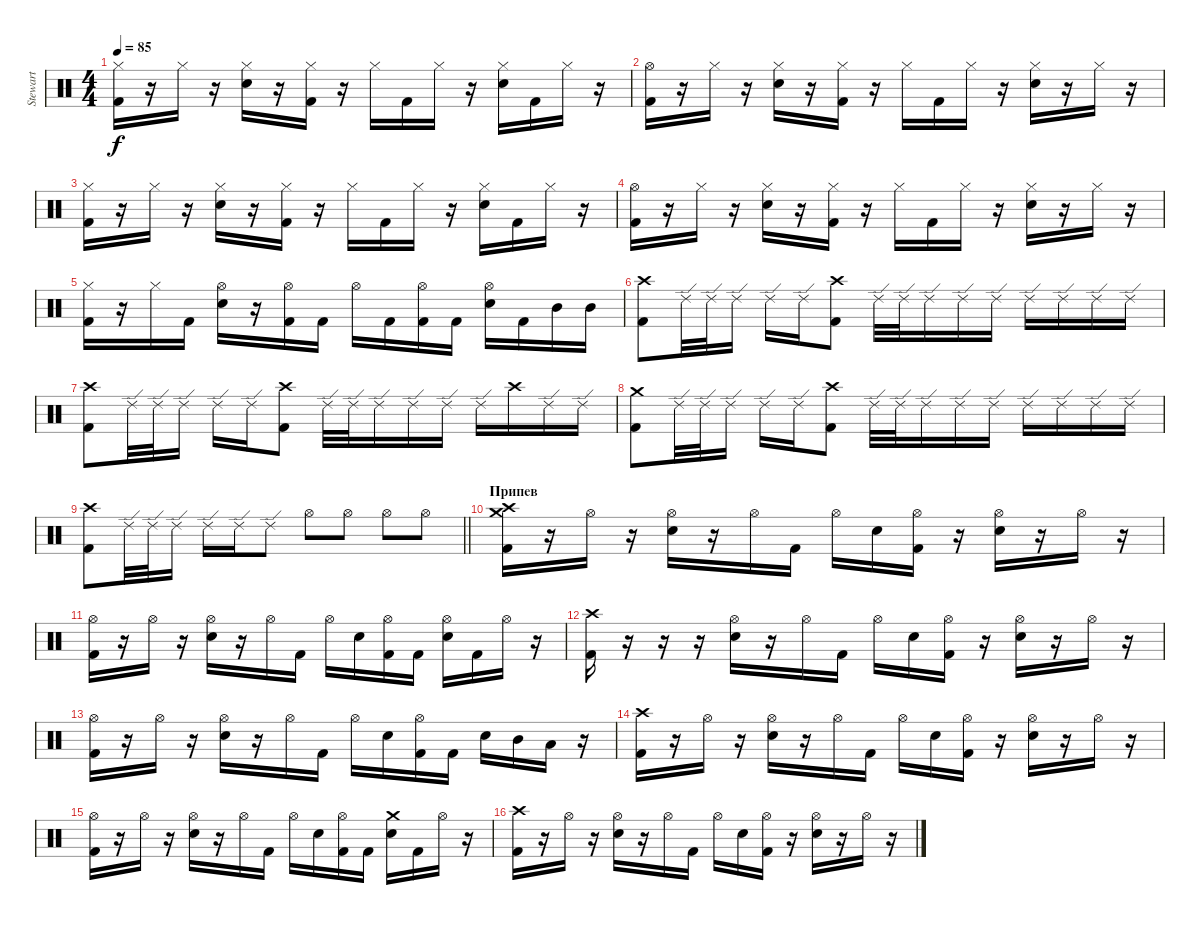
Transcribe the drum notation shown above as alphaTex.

\track ("Stewart" "Stewart") {instrument percussion}
\staff {score}
\articulation defaults
\ts (4 4)
\tempo 85
\clef neutral
\ks c
("Hi-Hat (closed)" "Kick (hit) 2").16{dy f} r.16 "Hi-Hat (closed)".16 r.16 ("Hi-Hat (closed)" "Electric Snare (hit)").16 r.16 ("Hi-Hat (closed)" "Kick (hit) 2").16 r.16 "Hi-Hat (closed)".16 "Kick (hit) 2".16 "Hi-Hat (closed)".16 r.16 ("Hi-Hat (closed)" "Electric Snare (hit)").16 "Kick (hit) 2".16 "Hi-Hat (closed)".16 r.16 |
("Hi-Hat (open)" "Kick (hit) 2").16 r.16 "Hi-Hat (closed)".16 r.16 ("Hi-Hat (closed)" "Electric Snare (hit)").16 r.16 ("Hi-Hat (closed)" "Kick (hit) 2").16 r.16 "Hi-Hat (closed)".16 "Kick (hit) 2".16 "Hi-Hat (closed)".16 r.16 ("Hi-Hat (closed)" "Electric Snare (hit)").16 r.16 "Hi-Hat (closed)".16 r.16 |
("Hi-Hat (closed)" "Kick (hit) 2").16 r.16 "Hi-Hat (closed)".16 r.16 ("Hi-Hat (closed)" "Electric Snare (hit)").16 r.16 ("Hi-Hat (closed)" "Kick (hit) 2").16 r.16 "Hi-Hat (closed)".16 "Kick (hit) 2".16 "Hi-Hat (closed)".16 r.16 ("Hi-Hat (closed)" "Electric Snare (hit)").16 "Kick (hit) 2".16 "Hi-Hat (closed)".16 r.16 |
("Hi-Hat (open)" "Kick (hit) 2").16 r.16 "Hi-Hat (closed)".16 r.16 ("Hi-Hat (closed)" "Electric Snare (hit)").16 r.16 ("Hi-Hat (closed)" "Kick (hit) 2").16 r.16 "Hi-Hat (closed)".16 "Kick (hit) 2".16 "Hi-Hat (closed)".16 r.16 ("Hi-Hat (closed)" "Electric Snare (hit)").16 r.16 "Hi-Hat (closed)".16 r.16 |
("Hi-Hat (closed)" "Kick (hit) 2").16 r.16 "Hi-Hat (closed)".16 "Kick (hit) 2".16 ("Hi-Hat (open)" "Electric Snare (hit)").16 r.16 ("Hi-Hat (open)" "Kick (hit) 2").16 "Kick (hit) 2".16 "Hi-Hat (open)".16 "Kick (hit) 2".16 ("Hi-Hat (open)" "Kick (hit) 2").16 "Kick (hit) 2".16 ("Hi-Hat (open)" "Electric Snare (hit)").16 "Kick (hit) 2".16 "Mid Tom (hit)".16 "Mid Tom (hit)".16 |
("Crash high (hit)" "Kick (hit) 2").8 "Ride (edge) 2".32 "Ride (edge) 2".32 "Ride (edge) 2".16 "Ride (edge) 2".16 "Ride (edge) 2".16 ("Crash high (hit)" "Kick (hit) 2").8 "Ride (edge) 2".32 "Ride (edge) 2".32 "Ride (edge) 2".16 "Ride (edge) 2".16 "Ride (edge) 2".16 "Ride (edge) 2".16 "Ride (edge) 2".16 "Ride (edge) 2".16 "Ride (edge) 2".16 |
("Crash high (hit)" "Kick (hit) 2").8 "Ride (edge) 2".32 "Ride (edge) 2".32 "Ride (edge) 2".16 "Ride (edge) 2".16 "Ride (edge) 2".16 ("Crash high (hit)" "Kick (hit) 2").8 "Ride (edge) 2".32 "Ride (edge) 2".32 "Ride (edge) 2".16 "Ride (edge) 2".16 "Ride (edge) 2".16 "Ride (edge) 2".16 "Crash high (hit)".16 "Ride (edge) 2".16 "Ride (edge) 2".16 |
("Crash medium (hit)" "Kick (hit) 2").8 "Ride (edge) 2".32 "Ride (edge) 2".32 "Ride (edge) 2".16 "Ride (edge) 2".16 "Ride (edge) 2".16 ("Crash high (hit)" "Kick (hit) 2").8 "Ride (edge) 2".32 "Ride (edge) 2".32 "Ride (edge) 2".16 "Ride (edge) 2".16 "Ride (edge) 2".16 "Ride (edge) 2".16 "Ride (edge) 2".16 "Ride (edge) 2".16 "Ride (edge) 2".16 |
\barLineRight lightlight
("Crash high (hit)" "Kick (hit) 2").8 "Ride (edge) 2".32 "Ride (edge) 2".32 "Ride (edge) 2".16 "Ride (edge) 2".16 "Ride (edge) 2".16 "Ride (edge) 2".8 "Hi-Hat (open)".8 "Hi-Hat (open)".8 "Hi-Hat (open)".8 "Hi-Hat (open)".8 |
\section ("" "Припев")
("Crash medium (hit)" "Crash high (hit)" "Kick (hit) 2").16 r.16 "Hi-Hat (open)".16 r.16 ("Hi-Hat (open)" "Electric Snare (hit)").16 r.16 "Hi-Hat (open)".16 "Kick (hit) 2".16 "Hi-Hat (open)".16 "Electric Snare (hit)".16 ("Hi-Hat (open)" "Kick (hit) 2").16 r.16 ("Hi-Hat (open)" "Electric Snare (hit)").16 r.16 "Hi-Hat (open)".16 r.16 |
("Hi-Hat (open)" "Kick (hit) 2").16 r.16 "Hi-Hat (open)".16 r.16 ("Hi-Hat (open)" "Electric Snare (hit)").16 r.16 "Hi-Hat (open)".16 "Kick (hit) 2".16 "Hi-Hat (open)".16 "Electric Snare (hit)".16 ("Hi-Hat (open)" "Kick (hit) 2").16 "Kick (hit) 2".16 ("Hi-Hat (open)" "Electric Snare (hit)").16 "Kick (hit) 2".16 "Hi-Hat (open)".16 r.16 |
("Crash high (hit)" "Kick (hit) 2").16 r.16 r.16 r.16 ("Hi-Hat (open)" "Electric Snare (hit)").16 r.16 "Hi-Hat (open)".16 "Kick (hit) 2".16 "Hi-Hat (open)".16 "Electric Snare (hit)".16 ("Hi-Hat (open)" "Kick (hit) 2").16 r.16 ("Hi-Hat (open)" "Electric Snare (hit)").16 r.16 "Hi-Hat (open)".16 r.16 |
("Hi-Hat (open)" "Kick (hit) 2").16 r.16 "Hi-Hat (open)".16 r.16 ("Hi-Hat (open)" "Electric Snare (hit)").16 r.16 "Hi-Hat (open)".16 "Kick (hit) 2".16 "Hi-Hat (open)".16 "Electric Snare (hit)".16 ("Hi-Hat (open)" "Kick (hit) 2").16 "Kick (hit) 2".16 "Electric Snare (hit)".16 "Mid Tom (hit)".16 "Low Tom (hit)".16 r.16 |
("Crash high (hit)" "Kick (hit) 2").16 r.16 "Hi-Hat (open)".16 r.16 ("Hi-Hat (open)" "Electric Snare (hit)").16 r.16 "Hi-Hat (open)".16 "Kick (hit) 2".16 "Hi-Hat (open)".16 "Electric Snare (hit)".16 ("Hi-Hat (open)" "Kick (hit) 2").16 r.16 ("Hi-Hat (open)" "Electric Snare (hit)").16 r.16 "Hi-Hat (open)".16 r.16 |
("Hi-Hat (open)" "Kick (hit) 2").16 r.16 "Hi-Hat (open)".16 r.16 ("Hi-Hat (open)" "Electric Snare (hit)").16 r.16 "Hi-Hat (open)".16 "Kick (hit) 2".16 "Hi-Hat (open)".16 "Electric Snare (hit)".16 ("Hi-Hat (open)" "Kick (hit) 2").16 "Kick (hit) 2".16 ("Crash medium (hit)" "Electric Snare (hit)").16 "Kick (hit) 2".16 "Hi-Hat (open)".16 r.16 |
("Crash high (hit)" "Kick (hit) 2").16 r.16 "Hi-Hat (open)".16 r.16 ("Hi-Hat (open)" "Electric Snare (hit)").16 r.16 "Hi-Hat (open)".16 "Kick (hit) 2".16 "Hi-Hat (open)".16 "Electric Snare (hit)".16 ("Hi-Hat (open)" "Kick (hit) 2").16 r.16 ("Hi-Hat (open)" "Electric Snare (hit)").16 r.16 "Hi-Hat (open)".16 r.16
